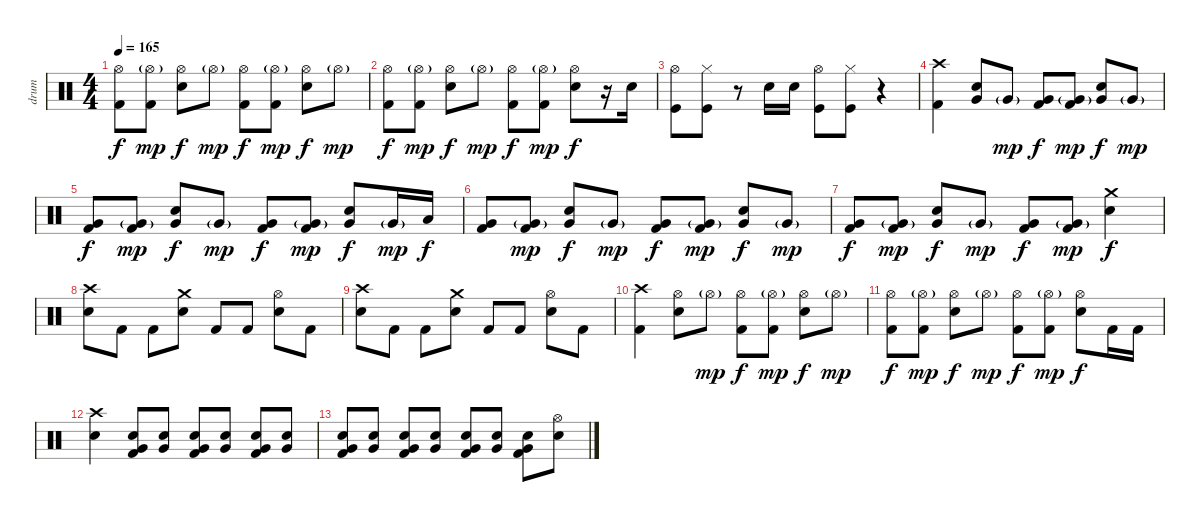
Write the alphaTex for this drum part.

\track ("drum" "drum") {instrument percussion}
\staff {score}
\articulation defaults
\ts (4 4)
\tempo 165
\clef neutral
\ks c
("Hi-Hat (open)" "Kick (hit) 2").8{dy f} ("Hi-Hat (open)"{g} "Kick (hit) 2").8{dy mp} ("Hi-Hat (open)" "Electric Snare (hit)").8{dy f} "Hi-Hat (open)"{g}.8{dy mp} ("Hi-Hat (open)" "Kick (hit) 2").8{dy f} ("Hi-Hat (open)"{g} "Kick (hit) 2").8{dy mp} ("Hi-Hat (open)" "Electric Snare (hit)").8{dy f} "Hi-Hat (open)"{g}.8{dy mp} |
("Hi-Hat (open)" "Kick (hit) 2").8{dy f} ("Hi-Hat (open)"{g} "Kick (hit) 2").8{dy mp} ("Hi-Hat (open)" "Electric Snare (hit)").8{dy f} "Hi-Hat (open)"{g}.8{dy mp} ("Hi-Hat (open)" "Kick (hit) 2").8{dy f} ("Hi-Hat (open)"{g} "Kick (hit) 2").8{dy mp} ("Hi-Hat (open)" "Electric Snare (hit)").8{dy f} r.16 "Electric Snare (hit)".16 |
("Hi-Hat (open)" "Kick (hit)").8 ("Hi-Hat (closed)" "Kick (hit)").8 r.8 "Electric Snare (hit)".16 "Electric Snare (hit)".16 ("Hi-Hat (open)" "Kick (hit)").8 ("Hi-Hat (closed)" "Kick (hit)").8 r.4 |
("Crash high (hit)" "Kick (hit) 2").4 ("Very Low Tom (hit)" "Electric Snare (hit)").8 "Very Low Tom (hit)"{g}.8{dy mp} ("Very Low Tom (hit)" "Kick (hit) 2").8{dy f} ("Very Low Tom (hit)"{g} "Kick (hit) 2").8{dy mp} ("Very Low Tom (hit)" "Electric Snare (hit)").8{dy f} "Very Low Tom (hit)"{g}.8{dy mp} |
("Very Low Tom (hit)" "Kick (hit) 2").8{dy f} ("Very Low Tom (hit)"{g} "Kick (hit) 2").8{dy mp} ("Very Low Tom (hit)" "Electric Snare (hit)").8{dy f} "Very Low Tom (hit)"{g}.8{dy mp} ("Very Low Tom (hit)" "Kick (hit) 2").8{dy f} ("Very Low Tom (hit)"{g} "Kick (hit) 2").8{dy mp} ("Very Low Tom (hit)" "Electric Snare (hit)").8{dy f} "Very Low Tom (hit)"{g}.16{dy mp} "Low Tom (hit)".16{dy f} |
("Very Low Tom (hit)" "Kick (hit) 2").8 ("Very Low Tom (hit)"{g} "Kick (hit) 2").8{dy mp} ("Very Low Tom (hit)" "Electric Snare (hit)").8{dy f} "Very Low Tom (hit)"{g}.8{dy mp} ("Very Low Tom (hit)" "Kick (hit) 2").8{dy f} ("Very Low Tom (hit)"{g} "Kick (hit) 2").8{dy mp} ("Very Low Tom (hit)" "Electric Snare (hit)").8{dy f} "Very Low Tom (hit)"{g}.8{dy mp} |
("Very Low Tom (hit)" "Kick (hit) 2").8{dy f} ("Very Low Tom (hit)"{g} "Kick (hit) 2").8{dy mp} ("Very Low Tom (hit)" "Electric Snare (hit)").8{dy f} "Very Low Tom (hit)"{g}.8{dy mp} ("Very Low Tom (hit)" "Kick (hit) 2").8{dy f} ("Very Low Tom (hit)"{g} "Kick (hit) 2").8{dy mp} ("Crash medium (hit)" "Electric Snare (hit)").4{dy f} |
("Crash high (hit)" "Electric Snare (hit)").8 "Kick (hit) 2".8 "Kick (hit) 2".8 ("Crash medium (hit)" "Electric Snare (hit)").8 "Kick (hit) 2".8 "Kick (hit) 2".8 ("Hi-Hat (open)" "Electric Snare (hit)").8 "Kick (hit) 2".8 |
("Crash high (hit)" "Electric Snare (hit)").8 "Kick (hit) 2".8 "Kick (hit) 2".8 ("Crash medium (hit)" "Electric Snare (hit)").8 "Kick (hit) 2".8 "Kick (hit) 2".8 ("Hi-Hat (open)" "Electric Snare (hit)").8 "Kick (hit) 2".8 |
("Crash high (hit)" "Kick (hit) 2").4 ("Hi-Hat (open)" "Electric Snare (hit)").8 "Hi-Hat (open)"{g}.8{dy mp} ("Hi-Hat (open)" "Kick (hit) 2").8{dy f} ("Hi-Hat (open)"{g} "Kick (hit) 2").8{dy mp} ("Hi-Hat (open)" "Electric Snare (hit)").8{dy f} "Hi-Hat (open)"{g}.8{dy mp} |
("Hi-Hat (open)" "Kick (hit) 2").8{dy f} ("Hi-Hat (open)"{g} "Kick (hit) 2").8{dy mp} ("Hi-Hat (open)" "Electric Snare (hit)").8{dy f} "Hi-Hat (open)"{g}.8{dy mp} ("Hi-Hat (open)" "Kick (hit) 2").8{dy f} ("Hi-Hat (open)"{g} "Kick (hit) 2").8{dy mp} ("Hi-Hat (open)" "Electric Snare (hit)").8{dy f} "Kick (hit) 2".16 "Kick (hit) 2".16 |
("Electric Snare (hit)" "Crash high (hit)").4 ("Very Low Tom (hit)" "Electric Snare (hit)" "Kick (hit) 2").8 ("Very Low Tom (hit)" "Electric Snare (hit)").8 ("Very Low Tom (hit)" "Electric Snare (hit)" "Kick (hit) 2").8 ("Very Low Tom (hit)" "Electric Snare (hit)").8 ("Very Low Tom (hit)" "Electric Snare (hit)" "Kick (hit) 2").8 ("Very Low Tom (hit)" "Electric Snare (hit)").8 |
("Very Low Tom (hit)" "Electric Snare (hit)" "Kick (hit) 2").8 ("Very Low Tom (hit)" "Electric Snare (hit)").8 ("Very Low Tom (hit)" "Electric Snare (hit)" "Kick (hit) 2").8 ("Very Low Tom (hit)" "Electric Snare (hit)").8 ("Very Low Tom (hit)" "Electric Snare (hit)" "Kick (hit) 2").8 ("Very Low Tom (hit)" "Electric Snare (hit)").8 ("Very Low Tom (hit)" "Electric Snare (hit)" "Kick (hit) 2").8 ("Hi-Hat (open)" "Electric Snare (hit)").8
